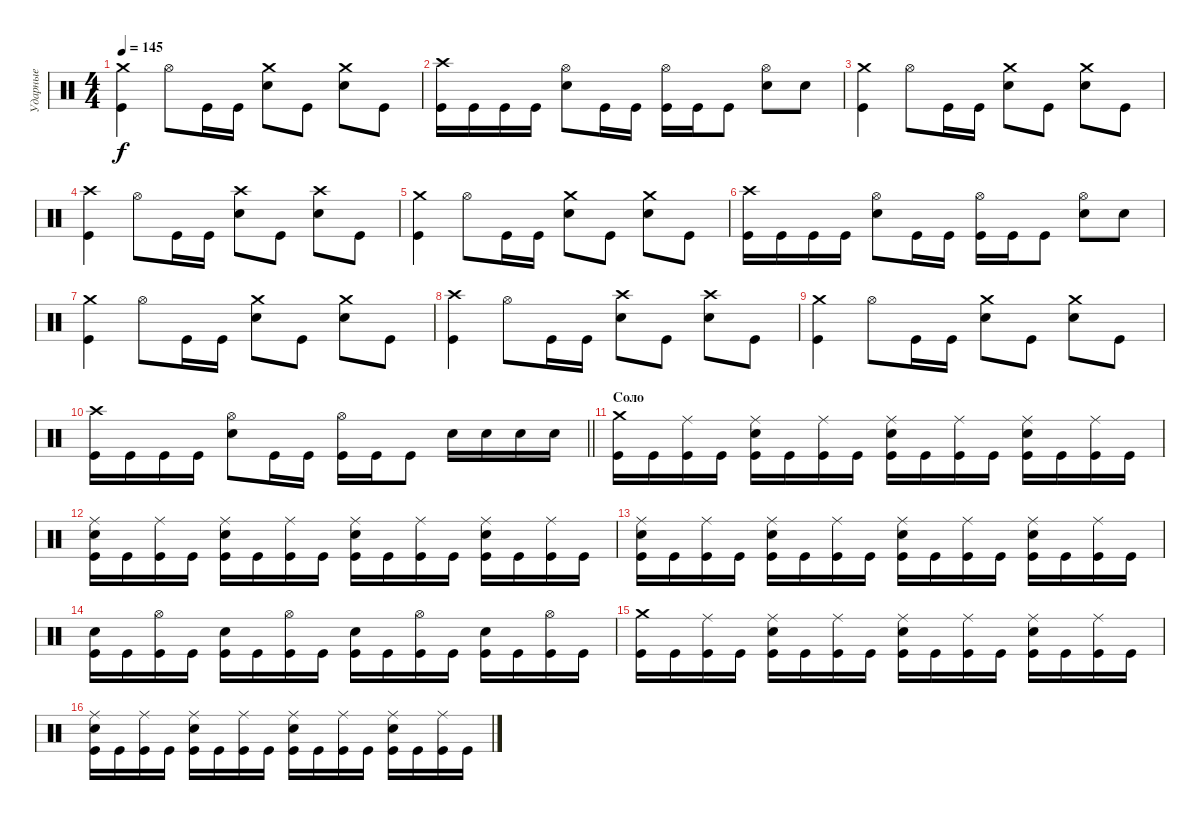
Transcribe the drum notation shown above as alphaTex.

\track ("Ударные" "Ударные") {instrument percussion}
\staff {score}
\articulation defaults
\ts (4 4)
\tempo 145
\clef neutral
\ks c
("Kick (hit)" "Crash medium (hit)").4{dy f} "Hi-Hat (open)".8 "Kick (hit)".16 "Kick (hit)".16 ("Snare (hit) 2" "Crash medium (hit)").8 "Kick (hit)".8 ("Snare (hit) 2" "Crash medium (hit)").8 "Kick (hit)".8 |
("Kick (hit)" "Crash high (hit)").16 "Kick (hit)".16 "Kick (hit)".16 "Kick (hit)".16 ("Snare (hit) 2" "Hi-Hat (open)").8 "Kick (hit)".16 "Kick (hit)".16 ("Kick (hit)" "Hi-Hat (open)").16 "Kick (hit)".16 "Kick (hit)".8 ("Snare (hit) 2" "Hi-Hat (open)").8 "Snare (hit) 2".8 |
("Kick (hit)" "Crash medium (hit)").4 "Hi-Hat (open)".8 "Kick (hit)".16 "Kick (hit)".16 ("Snare (hit) 2" "Crash medium (hit)").8 "Kick (hit)".8 ("Snare (hit) 2" "Crash medium (hit)").8 "Kick (hit)".8 |
("Kick (hit)" "Crash high (hit)").4 "Hi-Hat (open)".8 "Kick (hit)".16 "Kick (hit)".16 ("Snare (hit) 2" "Crash high (hit)").8 "Kick (hit)".8 ("Snare (hit) 2" "Crash high (hit)").8 "Kick (hit)".8 |
("Kick (hit)" "Crash medium (hit)").4 "Hi-Hat (open)".8 "Kick (hit)".16 "Kick (hit)".16 ("Snare (hit) 2" "Crash medium (hit)").8 "Kick (hit)".8 ("Snare (hit) 2" "Crash medium (hit)").8 "Kick (hit)".8 |
("Kick (hit)" "Crash high (hit)").16 "Kick (hit)".16 "Kick (hit)".16 "Kick (hit)".16 ("Snare (hit) 2" "Hi-Hat (open)").8 "Kick (hit)".16 "Kick (hit)".16 ("Kick (hit)" "Hi-Hat (open)").16 "Kick (hit)".16 "Kick (hit)".8 ("Snare (hit) 2" "Hi-Hat (open)").8 "Snare (hit) 2".8 |
("Kick (hit)" "Crash medium (hit)").4 "Hi-Hat (open)".8 "Kick (hit)".16 "Kick (hit)".16 ("Snare (hit) 2" "Crash medium (hit)").8 "Kick (hit)".8 ("Snare (hit) 2" "Crash medium (hit)").8 "Kick (hit)".8 |
("Kick (hit)" "Crash high (hit)").4 "Hi-Hat (open)".8 "Kick (hit)".16 "Kick (hit)".16 ("Snare (hit) 2" "Crash high (hit)").8 "Kick (hit)".8 ("Snare (hit) 2" "Crash high (hit)").8 "Kick (hit)".8 |
("Kick (hit)" "Crash medium (hit)").4 "Hi-Hat (open)".8 "Kick (hit)".16 "Kick (hit)".16 ("Snare (hit) 2" "Crash medium (hit)").8 "Kick (hit)".8 ("Snare (hit) 2" "Crash medium (hit)").8 "Kick (hit)".8 |
\barLineRight lightlight
("Kick (hit)" "Crash high (hit)").16 "Kick (hit)".16 "Kick (hit)".16 "Kick (hit)".16 ("Snare (hit) 2" "Hi-Hat (open)").8 "Kick (hit)".16 "Kick (hit)".16 ("Kick (hit)" "Hi-Hat (open)").16 "Kick (hit)".16 "Kick (hit)".8 "Snare (hit) 2".16 "Snare (hit) 2".16 "Snare (hit) 2".16 "Snare (hit) 2".16 |
\section ("" "Соло")
("Kick (hit)" "Crash medium (hit)").16 "Kick (hit)".16 ("Kick (hit)" "Ride (middle)").16 "Kick (hit)".16 ("Kick (hit)" "Snare (hit) 2" "Ride (middle)").16 "Kick (hit)".16 ("Kick (hit)" "Ride (middle)").16 "Kick (hit)".16 ("Kick (hit)" "Snare (hit) 2" "Ride (middle)").16 "Kick (hit)".16 ("Kick (hit)" "Ride (middle)").16 "Kick (hit)".16 ("Kick (hit)" "Snare (hit) 2" "Ride (middle)").16 "Kick (hit)".16 ("Kick (hit)" "Ride (middle)").16 "Kick (hit)".16 |
("Kick (hit)" "Snare (hit) 2" "Ride (middle)").16 "Kick (hit)".16 ("Kick (hit)" "Ride (middle)").16 "Kick (hit)".16 ("Kick (hit)" "Snare (hit) 2" "Ride (middle)").16 "Kick (hit)".16 ("Kick (hit)" "Ride (middle)").16 "Kick (hit)".16 ("Kick (hit)" "Snare (hit) 2" "Ride (middle)").16 "Kick (hit)".16 ("Kick (hit)" "Ride (middle)").16 "Kick (hit)".16 ("Kick (hit)" "Snare (hit) 2" "Ride (middle)").16 "Kick (hit)".16 ("Kick (hit)" "Ride (middle)").16 "Kick (hit)".16 |
("Kick (hit)" "Snare (hit) 2" "Ride (middle)").16 "Kick (hit)".16 ("Kick (hit)" "Ride (middle)").16 "Kick (hit)".16 ("Kick (hit)" "Snare (hit) 2" "Ride (middle)").16 "Kick (hit)".16 ("Kick (hit)" "Ride (middle)").16 "Kick (hit)".16 ("Kick (hit)" "Snare (hit) 2" "Ride (middle)").16 "Kick (hit)".16 ("Kick (hit)" "Ride (middle)").16 "Kick (hit)".16 ("Kick (hit)" "Snare (hit) 2" "Ride (middle)").16 "Kick (hit)".16 ("Kick (hit)" "Ride (middle)").16 "Kick (hit)".16 |
("Kick (hit)" "Snare (hit) 2").16 "Kick (hit)".16 ("Kick (hit)" "Hi-Hat (open)").16 "Kick (hit)".16 ("Kick (hit)" "Snare (hit) 2").16 "Kick (hit)".16 ("Kick (hit)" "Hi-Hat (open)").16 "Kick (hit)".16 ("Kick (hit)" "Snare (hit) 2").16 "Kick (hit)".16 ("Kick (hit)" "Hi-Hat (open)").16 "Kick (hit)".16 ("Kick (hit)" "Snare (hit) 2").16 "Kick (hit)".16 ("Kick (hit)" "Hi-Hat (open)").16 "Kick (hit)".16 |
("Kick (hit)" "Crash medium (hit)").16 "Kick (hit)".16 ("Kick (hit)" "Ride (middle)").16 "Kick (hit)".16 ("Kick (hit)" "Snare (hit) 2" "Ride (middle)").16 "Kick (hit)".16 ("Kick (hit)" "Ride (middle)").16 "Kick (hit)".16 ("Kick (hit)" "Snare (hit) 2" "Ride (middle)").16 "Kick (hit)".16 ("Kick (hit)" "Ride (middle)").16 "Kick (hit)".16 ("Kick (hit)" "Snare (hit) 2" "Ride (middle)").16 "Kick (hit)".16 ("Kick (hit)" "Ride (middle)").16 "Kick (hit)".16 |
("Kick (hit)" "Snare (hit) 2" "Ride (middle)").16 "Kick (hit)".16 ("Kick (hit)" "Ride (middle)").16 "Kick (hit)".16 ("Kick (hit)" "Snare (hit) 2" "Ride (middle)").16 "Kick (hit)".16 ("Kick (hit)" "Ride (middle)").16 "Kick (hit)".16 ("Kick (hit)" "Snare (hit) 2" "Ride (middle)").16 "Kick (hit)".16 ("Kick (hit)" "Ride (middle)").16 "Kick (hit)".16 ("Kick (hit)" "Snare (hit) 2" "Ride (middle)").16 "Kick (hit)".16 ("Kick (hit)" "Ride (middle)").16 "Kick (hit)".16
